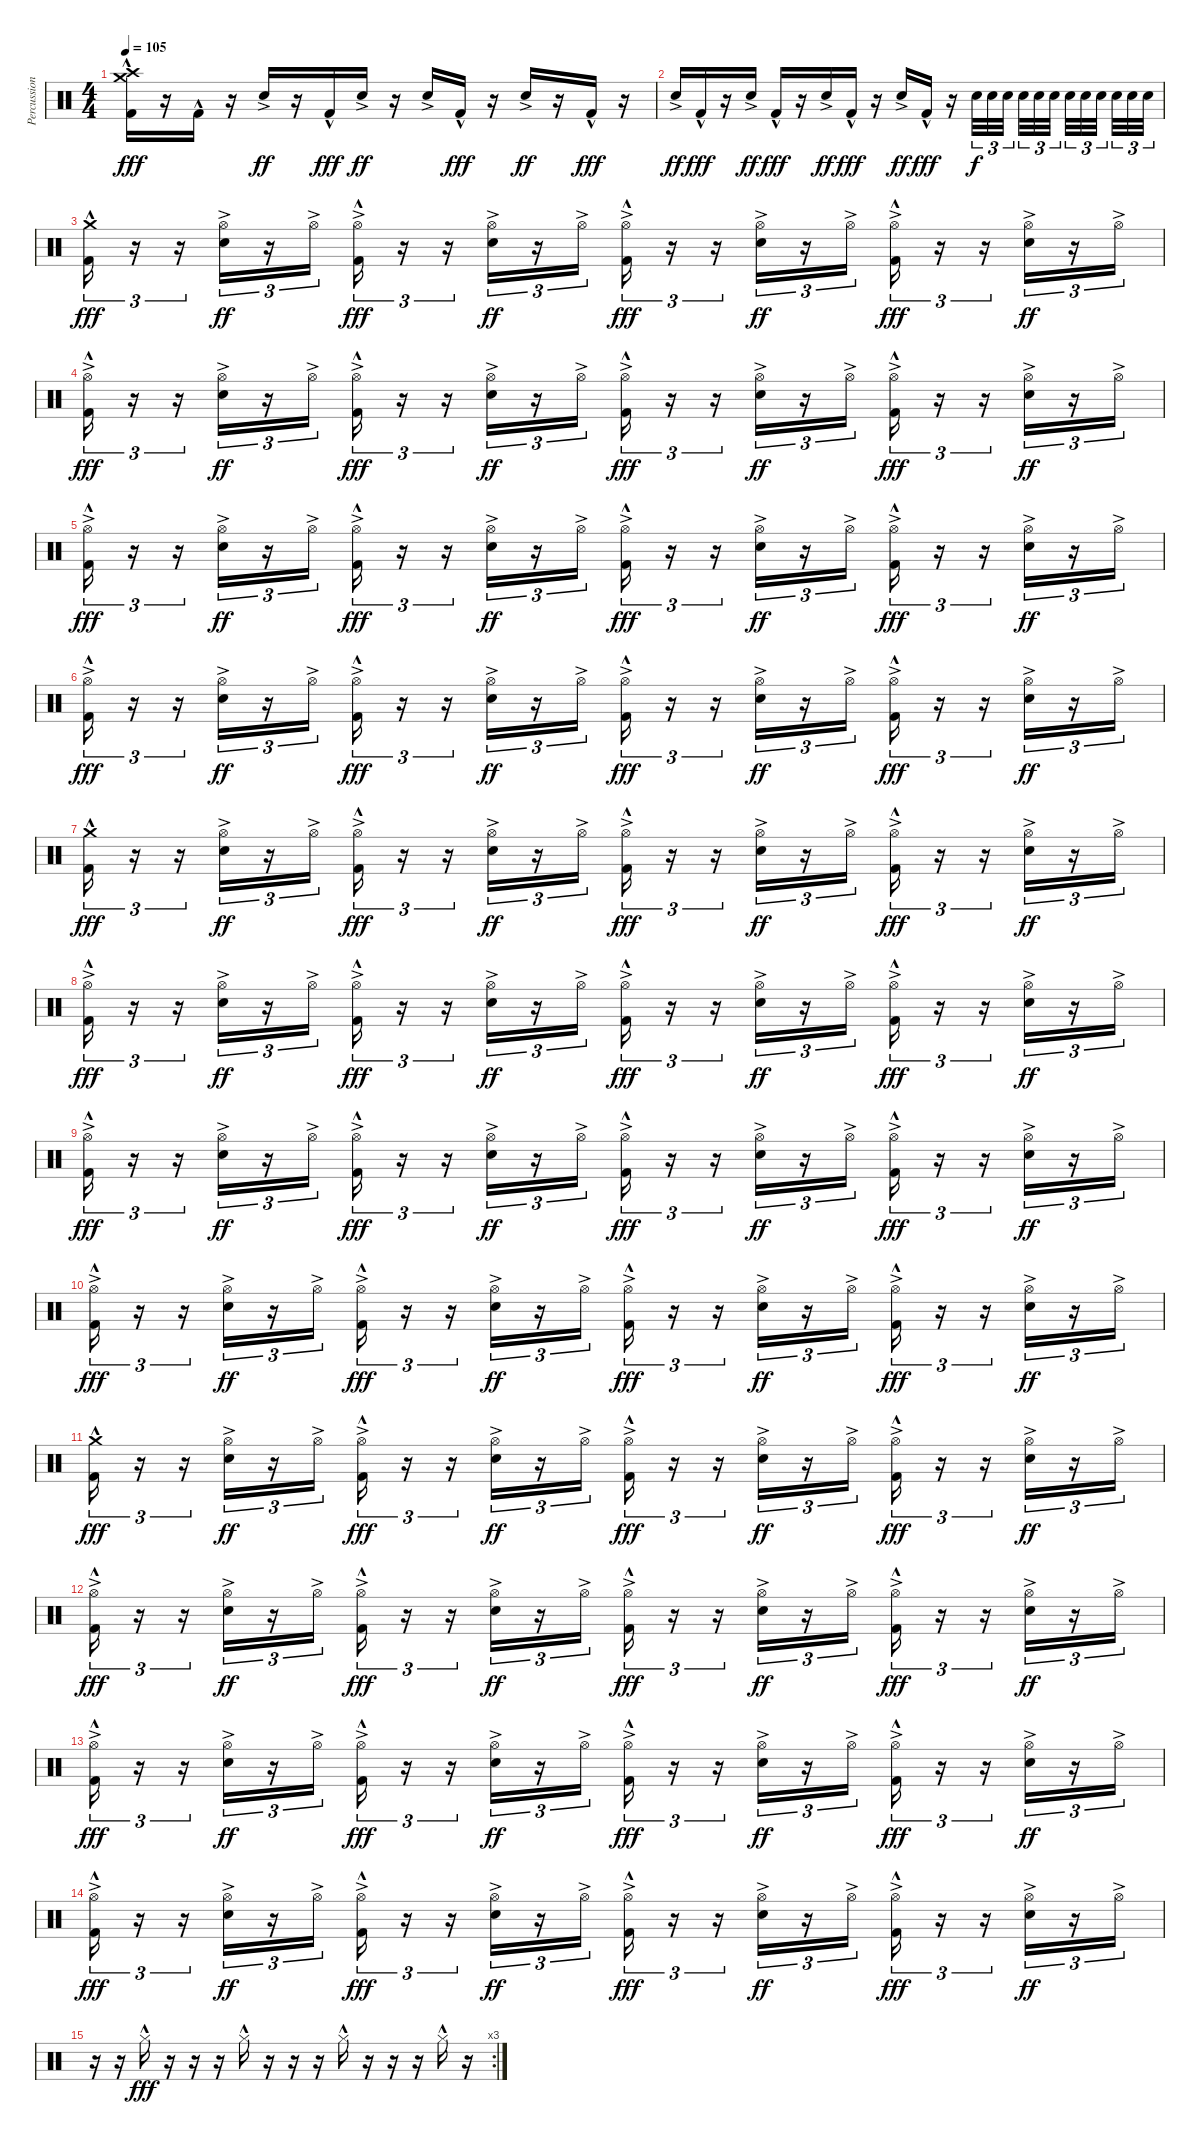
\track ("Percussion" "Percussion") {instrument percussion}
\staff {score}
\articulation defaults
\ts (4 4)
\tempo 105
\clef neutral
\ks c
("Crash medium (hit)"{hac} "Crash high (hit)"{hac} "Kick (hit) 2"{hac}).16{dy fff volume 16} r.16 "Kick (hit) 2"{hac}.16 r.16 "Snare (hit) 2"{ac}.16{dy ff} r.16 "Kick (hit) 2"{hac}.16{dy fff} "Snare (hit) 2"{ac}.16{dy ff} r.16 "Snare (hit) 2"{ac}.16 "Kick (hit) 2"{hac}.16{dy fff} r.16 "Snare (hit) 2"{ac}.16{dy ff} r.16 "Kick (hit) 2"{hac}.16{dy fff} r.16 |
"Snare (hit) 2"{ac}.16{dy ff} "Kick (hit) 2"{hac}.16{dy fff} r.16 "Snare (hit) 2"{ac}.16{dy ff} "Kick (hit) 2"{hac}.16{dy fff} r.16 "Snare (hit) 2"{ac}.16{dy ff} "Kick (hit) 2"{hac}.16{dy fff} r.16 "Snare (hit) 2"{ac}.16{dy ff} "Kick (hit) 2"{hac}.16{dy fff} r.16 "Snare (hit) 2".32{tu (3 2) dy f} "Snare (hit) 2".32{tu (3 2)} "Snare (hit) 2".32{tu (3 2) beam splitsecondary} "Snare (hit) 2".32{tu (3 2)} "Snare (hit) 2".32{tu (3 2)} "Snare (hit) 2".32{tu (3 2) beam splitsecondary} "Snare (hit) 2".32{tu (3 2)} "Snare (hit) 2".32{tu (3 2)} "Snare (hit) 2".32{tu (3 2) beam splitsecondary} "Snare (hit) 2".32{tu (3 2)} "Snare (hit) 2".32{tu (3 2)} "Snare (hit) 2".32{tu (3 2)} |
("Crash medium (hit)"{hac} "Kick (hit) 2"{hac}).16{tu (3 2) dy fff} r.16{tu (3 2)} r.16{tu (3 2)} ("Hi-Hat (open)"{ac} "Snare (hit) 2"{ac}).16{tu (3 2) dy ff} r.16{tu (3 2)} "Hi-Hat (open)"{ac}.16{tu (3 2)} ("Hi-Hat (open)"{ac} "Kick (hit) 2"{hac}).16{tu (3 2) dy fff} r.16{tu (3 2)} r.16{tu (3 2)} ("Hi-Hat (open)"{ac} "Snare (hit) 2"{ac}).16{tu (3 2) dy ff} r.16{tu (3 2)} "Hi-Hat (open)"{ac}.16{tu (3 2)} ("Hi-Hat (open)"{ac} "Kick (hit) 2"{hac}).16{tu (3 2) dy fff} r.16{tu (3 2)} r.16{tu (3 2)} ("Hi-Hat (open)"{ac} "Snare (hit) 2"{ac}).16{tu (3 2) dy ff} r.16{tu (3 2)} "Hi-Hat (open)"{ac}.16{tu (3 2)} ("Hi-Hat (open)"{ac} "Kick (hit) 2"{hac}).16{tu (3 2) dy fff} r.16{tu (3 2)} r.16{tu (3 2)} ("Hi-Hat (open)"{ac} "Snare (hit) 2"{ac}).16{tu (3 2) dy ff} r.16{tu (3 2)} "Hi-Hat (open)"{ac}.16{tu (3 2)} |
("Hi-Hat (open)"{ac} "Kick (hit) 2"{hac}).16{tu (3 2) dy fff} r.16{tu (3 2)} r.16{tu (3 2)} ("Hi-Hat (open)"{ac} "Snare (hit) 2"{ac}).16{tu (3 2) dy ff} r.16{tu (3 2)} "Hi-Hat (open)"{ac}.16{tu (3 2)} ("Hi-Hat (open)"{ac} "Kick (hit) 2"{hac}).16{tu (3 2) dy fff} r.16{tu (3 2)} r.16{tu (3 2)} ("Hi-Hat (open)"{ac} "Snare (hit) 2"{ac}).16{tu (3 2) dy ff} r.16{tu (3 2)} "Hi-Hat (open)"{ac}.16{tu (3 2)} ("Hi-Hat (open)"{ac} "Kick (hit) 2"{hac}).16{tu (3 2) dy fff} r.16{tu (3 2)} r.16{tu (3 2)} ("Hi-Hat (open)"{ac} "Snare (hit) 2"{ac}).16{tu (3 2) dy ff} r.16{tu (3 2)} "Hi-Hat (open)"{ac}.16{tu (3 2)} ("Hi-Hat (open)"{ac} "Kick (hit) 2"{hac}).16{tu (3 2) dy fff} r.16{tu (3 2)} r.16{tu (3 2)} ("Hi-Hat (open)"{ac} "Snare (hit) 2"{ac}).16{tu (3 2) dy ff} r.16{tu (3 2)} "Hi-Hat (open)"{ac}.16{tu (3 2)} |
("Hi-Hat (open)"{ac} "Kick (hit) 2"{hac}).16{tu (3 2) dy fff} r.16{tu (3 2)} r.16{tu (3 2)} ("Hi-Hat (open)"{ac} "Snare (hit) 2"{ac}).16{tu (3 2) dy ff} r.16{tu (3 2)} "Hi-Hat (open)"{ac}.16{tu (3 2)} ("Hi-Hat (open)"{ac} "Kick (hit) 2"{hac}).16{tu (3 2) dy fff} r.16{tu (3 2)} r.16{tu (3 2)} ("Hi-Hat (open)"{ac} "Snare (hit) 2"{ac}).16{tu (3 2) dy ff} r.16{tu (3 2)} "Hi-Hat (open)"{ac}.16{tu (3 2)} ("Hi-Hat (open)"{ac} "Kick (hit) 2"{hac}).16{tu (3 2) dy fff} r.16{tu (3 2)} r.16{tu (3 2)} ("Hi-Hat (open)"{ac} "Snare (hit) 2"{ac}).16{tu (3 2) dy ff} r.16{tu (3 2)} "Hi-Hat (open)"{ac}.16{tu (3 2)} ("Hi-Hat (open)"{ac} "Kick (hit) 2"{hac}).16{tu (3 2) dy fff} r.16{tu (3 2)} r.16{tu (3 2)} ("Hi-Hat (open)"{ac} "Snare (hit) 2"{ac}).16{tu (3 2) dy ff} r.16{tu (3 2)} "Hi-Hat (open)"{ac}.16{tu (3 2)} |
("Hi-Hat (open)"{ac} "Kick (hit) 2"{hac}).16{tu (3 2) dy fff} r.16{tu (3 2)} r.16{tu (3 2)} ("Hi-Hat (open)"{ac} "Snare (hit) 2"{ac}).16{tu (3 2) dy ff} r.16{tu (3 2)} "Hi-Hat (open)"{ac}.16{tu (3 2)} ("Hi-Hat (open)"{ac} "Kick (hit) 2"{hac}).16{tu (3 2) dy fff} r.16{tu (3 2)} r.16{tu (3 2)} ("Hi-Hat (open)"{ac} "Snare (hit) 2"{ac}).16{tu (3 2) dy ff} r.16{tu (3 2)} "Hi-Hat (open)"{ac}.16{tu (3 2)} ("Hi-Hat (open)"{ac} "Kick (hit) 2"{hac}).16{tu (3 2) dy fff} r.16{tu (3 2)} r.16{tu (3 2)} ("Hi-Hat (open)"{ac} "Snare (hit) 2"{ac}).16{tu (3 2) dy ff} r.16{tu (3 2)} "Hi-Hat (open)"{ac}.16{tu (3 2)} ("Hi-Hat (open)"{ac} "Kick (hit) 2"{hac}).16{tu (3 2) dy fff} r.16{tu (3 2)} r.16{tu (3 2)} ("Hi-Hat (open)"{ac} "Snare (hit) 2"{ac}).16{tu (3 2) dy ff} r.16{tu (3 2)} "Hi-Hat (open)"{ac}.16{tu (3 2)} |
("Crash medium (hit)"{hac} "Kick (hit) 2"{hac}).16{tu (3 2) dy fff} r.16{tu (3 2)} r.16{tu (3 2)} ("Hi-Hat (open)"{ac} "Snare (hit) 2"{ac}).16{tu (3 2) dy ff} r.16{tu (3 2)} "Hi-Hat (open)"{ac}.16{tu (3 2)} ("Hi-Hat (open)"{ac} "Kick (hit) 2"{hac}).16{tu (3 2) dy fff} r.16{tu (3 2)} r.16{tu (3 2)} ("Hi-Hat (open)"{ac} "Snare (hit) 2"{ac}).16{tu (3 2) dy ff} r.16{tu (3 2)} "Hi-Hat (open)"{ac}.16{tu (3 2)} ("Hi-Hat (open)"{ac} "Kick (hit) 2"{hac}).16{tu (3 2) dy fff} r.16{tu (3 2)} r.16{tu (3 2)} ("Hi-Hat (open)"{ac} "Snare (hit) 2"{ac}).16{tu (3 2) dy ff} r.16{tu (3 2)} "Hi-Hat (open)"{ac}.16{tu (3 2)} ("Hi-Hat (open)"{ac} "Kick (hit) 2"{hac}).16{tu (3 2) dy fff} r.16{tu (3 2)} r.16{tu (3 2)} ("Hi-Hat (open)"{ac} "Snare (hit) 2"{ac}).16{tu (3 2) dy ff} r.16{tu (3 2)} "Hi-Hat (open)"{ac}.16{tu (3 2)} |
("Hi-Hat (open)"{ac} "Kick (hit) 2"{hac}).16{tu (3 2) dy fff} r.16{tu (3 2)} r.16{tu (3 2)} ("Hi-Hat (open)"{ac} "Snare (hit) 2"{ac}).16{tu (3 2) dy ff} r.16{tu (3 2)} "Hi-Hat (open)"{ac}.16{tu (3 2)} ("Hi-Hat (open)"{ac} "Kick (hit) 2"{hac}).16{tu (3 2) dy fff} r.16{tu (3 2)} r.16{tu (3 2)} ("Hi-Hat (open)"{ac} "Snare (hit) 2"{ac}).16{tu (3 2) dy ff} r.16{tu (3 2)} "Hi-Hat (open)"{ac}.16{tu (3 2)} ("Hi-Hat (open)"{ac} "Kick (hit) 2"{hac}).16{tu (3 2) dy fff} r.16{tu (3 2)} r.16{tu (3 2)} ("Hi-Hat (open)"{ac} "Snare (hit) 2"{ac}).16{tu (3 2) dy ff} r.16{tu (3 2)} "Hi-Hat (open)"{ac}.16{tu (3 2)} ("Hi-Hat (open)"{ac} "Kick (hit) 2"{hac}).16{tu (3 2) dy fff} r.16{tu (3 2)} r.16{tu (3 2)} ("Hi-Hat (open)"{ac} "Snare (hit) 2"{ac}).16{tu (3 2) dy ff} r.16{tu (3 2)} "Hi-Hat (open)"{ac}.16{tu (3 2)} |
("Hi-Hat (open)"{ac} "Kick (hit) 2"{hac}).16{tu (3 2) dy fff} r.16{tu (3 2)} r.16{tu (3 2)} ("Hi-Hat (open)"{ac} "Snare (hit) 2"{ac}).16{tu (3 2) dy ff} r.16{tu (3 2)} "Hi-Hat (open)"{ac}.16{tu (3 2)} ("Hi-Hat (open)"{ac} "Kick (hit) 2"{hac}).16{tu (3 2) dy fff} r.16{tu (3 2)} r.16{tu (3 2)} ("Hi-Hat (open)"{ac} "Snare (hit) 2"{ac}).16{tu (3 2) dy ff} r.16{tu (3 2)} "Hi-Hat (open)"{ac}.16{tu (3 2)} ("Hi-Hat (open)"{ac} "Kick (hit) 2"{hac}).16{tu (3 2) dy fff} r.16{tu (3 2)} r.16{tu (3 2)} ("Hi-Hat (open)"{ac} "Snare (hit) 2"{ac}).16{tu (3 2) dy ff} r.16{tu (3 2)} "Hi-Hat (open)"{ac}.16{tu (3 2)} ("Hi-Hat (open)"{ac} "Kick (hit) 2"{hac}).16{tu (3 2) dy fff} r.16{tu (3 2)} r.16{tu (3 2)} ("Hi-Hat (open)"{ac} "Snare (hit) 2"{ac}).16{tu (3 2) dy ff} r.16{tu (3 2)} "Hi-Hat (open)"{ac}.16{tu (3 2)} |
("Hi-Hat (open)"{ac} "Kick (hit) 2"{hac}).16{tu (3 2) dy fff} r.16{tu (3 2)} r.16{tu (3 2)} ("Hi-Hat (open)"{ac} "Snare (hit) 2"{ac}).16{tu (3 2) dy ff} r.16{tu (3 2)} "Hi-Hat (open)"{ac}.16{tu (3 2)} ("Hi-Hat (open)"{ac} "Kick (hit) 2"{hac}).16{tu (3 2) dy fff} r.16{tu (3 2)} r.16{tu (3 2)} ("Hi-Hat (open)"{ac} "Snare (hit) 2"{ac}).16{tu (3 2) dy ff} r.16{tu (3 2)} "Hi-Hat (open)"{ac}.16{tu (3 2)} ("Hi-Hat (open)"{ac} "Kick (hit) 2"{hac}).16{tu (3 2) dy fff} r.16{tu (3 2)} r.16{tu (3 2)} ("Hi-Hat (open)"{ac} "Snare (hit) 2"{ac}).16{tu (3 2) dy ff} r.16{tu (3 2)} "Hi-Hat (open)"{ac}.16{tu (3 2)} ("Hi-Hat (open)"{ac} "Kick (hit) 2"{hac}).16{tu (3 2) dy fff} r.16{tu (3 2)} r.16{tu (3 2)} ("Hi-Hat (open)"{ac} "Snare (hit) 2"{ac}).16{tu (3 2) dy ff} r.16{tu (3 2)} "Hi-Hat (open)"{ac}.16{tu (3 2)} |
("Crash medium (hit)"{hac} "Kick (hit) 2"{hac}).16{tu (3 2) dy fff} r.16{tu (3 2)} r.16{tu (3 2)} ("Hi-Hat (open)"{ac} "Snare (hit) 2"{ac}).16{tu (3 2) dy ff} r.16{tu (3 2)} "Hi-Hat (open)"{ac}.16{tu (3 2)} ("Hi-Hat (open)"{ac} "Kick (hit) 2"{hac}).16{tu (3 2) dy fff} r.16{tu (3 2)} r.16{tu (3 2)} ("Hi-Hat (open)"{ac} "Snare (hit) 2"{ac}).16{tu (3 2) dy ff} r.16{tu (3 2)} "Hi-Hat (open)"{ac}.16{tu (3 2)} ("Hi-Hat (open)"{ac} "Kick (hit) 2"{hac}).16{tu (3 2) dy fff} r.16{tu (3 2)} r.16{tu (3 2)} ("Hi-Hat (open)"{ac} "Snare (hit) 2"{ac}).16{tu (3 2) dy ff} r.16{tu (3 2)} "Hi-Hat (open)"{ac}.16{tu (3 2)} ("Hi-Hat (open)"{ac} "Kick (hit) 2"{hac}).16{tu (3 2) dy fff} r.16{tu (3 2)} r.16{tu (3 2)} ("Hi-Hat (open)"{ac} "Snare (hit) 2"{ac}).16{tu (3 2) dy ff} r.16{tu (3 2)} "Hi-Hat (open)"{ac}.16{tu (3 2)} |
("Hi-Hat (open)"{ac} "Kick (hit) 2"{hac}).16{tu (3 2) dy fff} r.16{tu (3 2)} r.16{tu (3 2)} ("Hi-Hat (open)"{ac} "Snare (hit) 2"{ac}).16{tu (3 2) dy ff} r.16{tu (3 2)} "Hi-Hat (open)"{ac}.16{tu (3 2)} ("Hi-Hat (open)"{ac} "Kick (hit) 2"{hac}).16{tu (3 2) dy fff} r.16{tu (3 2)} r.16{tu (3 2)} ("Hi-Hat (open)"{ac} "Snare (hit) 2"{ac}).16{tu (3 2) dy ff} r.16{tu (3 2)} "Hi-Hat (open)"{ac}.16{tu (3 2)} ("Hi-Hat (open)"{ac} "Kick (hit) 2"{hac}).16{tu (3 2) dy fff} r.16{tu (3 2)} r.16{tu (3 2)} ("Hi-Hat (open)"{ac} "Snare (hit) 2"{ac}).16{tu (3 2) dy ff} r.16{tu (3 2)} "Hi-Hat (open)"{ac}.16{tu (3 2)} ("Hi-Hat (open)"{ac} "Kick (hit) 2"{hac}).16{tu (3 2) dy fff} r.16{tu (3 2)} r.16{tu (3 2)} ("Hi-Hat (open)"{ac} "Snare (hit) 2"{ac}).16{tu (3 2) dy ff} r.16{tu (3 2)} "Hi-Hat (open)"{ac}.16{tu (3 2)} |
("Hi-Hat (open)"{ac} "Kick (hit) 2"{hac}).16{tu (3 2) dy fff} r.16{tu (3 2)} r.16{tu (3 2)} ("Hi-Hat (open)"{ac} "Snare (hit) 2"{ac}).16{tu (3 2) dy ff} r.16{tu (3 2)} "Hi-Hat (open)"{ac}.16{tu (3 2)} ("Hi-Hat (open)"{ac} "Kick (hit) 2"{hac}).16{tu (3 2) dy fff} r.16{tu (3 2)} r.16{tu (3 2)} ("Hi-Hat (open)"{ac} "Snare (hit) 2"{ac}).16{tu (3 2) dy ff} r.16{tu (3 2)} "Hi-Hat (open)"{ac}.16{tu (3 2)} ("Hi-Hat (open)"{ac} "Kick (hit) 2"{hac}).16{tu (3 2) dy fff} r.16{tu (3 2)} r.16{tu (3 2)} ("Hi-Hat (open)"{ac} "Snare (hit) 2"{ac}).16{tu (3 2) dy ff} r.16{tu (3 2)} "Hi-Hat (open)"{ac}.16{tu (3 2)} ("Hi-Hat (open)"{ac} "Kick (hit) 2"{hac}).16{tu (3 2) dy fff} r.16{tu (3 2)} r.16{tu (3 2)} ("Hi-Hat (open)"{ac} "Snare (hit) 2"{ac}).16{tu (3 2) dy ff} r.16{tu (3 2)} "Hi-Hat (open)"{ac}.16{tu (3 2)} |
("Hi-Hat (open)"{ac} "Kick (hit) 2"{hac}).16{tu (3 2) dy fff} r.16{tu (3 2)} r.16{tu (3 2)} ("Hi-Hat (open)"{ac} "Snare (hit) 2"{ac}).16{tu (3 2) dy ff} r.16{tu (3 2)} "Hi-Hat (open)"{ac}.16{tu (3 2)} ("Hi-Hat (open)"{ac} "Kick (hit) 2"{hac}).16{tu (3 2) dy fff} r.16{tu (3 2)} r.16{tu (3 2)} ("Hi-Hat (open)"{ac} "Snare (hit) 2"{ac}).16{tu (3 2) dy ff} r.16{tu (3 2)} "Hi-Hat (open)"{ac}.16{tu (3 2)} ("Hi-Hat (open)"{ac} "Kick (hit) 2"{hac}).16{tu (3 2) dy fff} r.16{tu (3 2)} r.16{tu (3 2)} ("Hi-Hat (open)"{ac} "Snare (hit) 2"{ac}).16{tu (3 2) dy ff} r.16{tu (3 2)} "Hi-Hat (open)"{ac}.16{tu (3 2)} ("Hi-Hat (open)"{ac} "Kick (hit) 2"{hac}).16{tu (3 2) dy fff} r.16{tu (3 2)} r.16{tu (3 2)} ("Hi-Hat (open)"{ac} "Snare (hit) 2"{ac}).16{tu (3 2) dy ff} r.16{tu (3 2)} "Hi-Hat (open)"{ac}.16{tu (3 2)} |
\rc 3
r.16 r.16 "Hi-Hat (closed)"{hac}.16{dy fff} r.16 r.16 r.16 "Hi-Hat (closed)"{hac}.16 r.16 r.16 r.16 "Hi-Hat (closed)"{hac}.16 r.16 r.16 r.16 "Hi-Hat (closed)"{hac}.16 r.16
